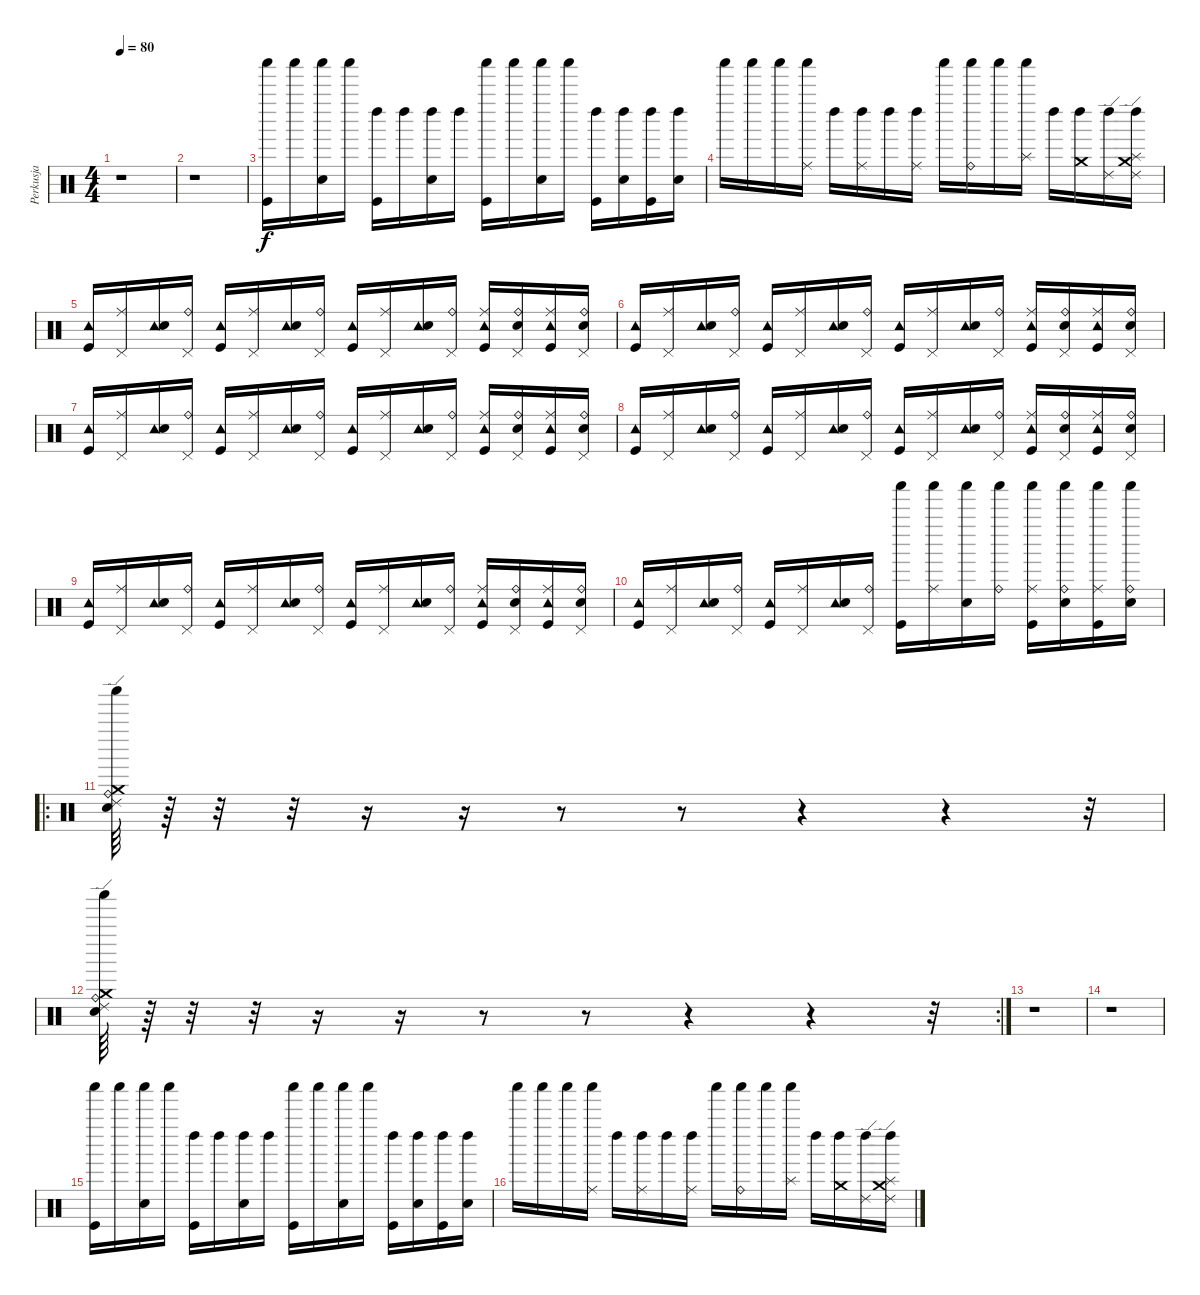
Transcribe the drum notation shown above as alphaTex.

\track ("Perkusja" "Perkusja") {instrument percussion}
\staff {score}
\articulation defaults
\ts (4 4)
\tempo 80
\clef neutral
\ks c
r.1{dy f} |
r.1 |
("Shaker (hit)" "Kick (hit)").16 "Shaker (hit)".16 ("Shaker (hit)" "Snare (hit) 2").16 "Shaker (hit)".16 ("Left Maraca (hit)" "Kick (hit)").16 "Left Maraca (hit)".16 ("Left Maraca (hit)" "Snare (hit) 2").16 "Left Maraca (hit)".16 ("Shaker (hit)" "Kick (hit)").16 "Shaker (hit)".16 ("Shaker (hit)" "Snare (hit) 2").16 "Shaker (hit)".16 ("Left Maraca (hit)" "Kick (hit)").16 ("Left Maraca (hit)" "Snare (hit) 2").16 ("Left Maraca (hit)" "Kick (hit)").16 ("Left Maraca (hit)" "Snare (hit) 2").16 |
"Shaker (hit)".16 "Shaker (hit)".16 "Shaker (hit)".16 ("Shaker (hit)" "Ride (middle)").16 "Left Maraca (hit)".16 ("Left Maraca (hit)" "Ride (middle)").16 "Left Maraca (hit)".16 ("Left Maraca (hit)" "Ride (middle)").16 "Shaker (hit)".16 ("Shaker (hit)" "Ride (bell)").16 "Shaker (hit)".16 ("Shaker (hit)" "Splash (hit)").16 "Left Maraca (hit)".16 ("Left Maraca (hit)" "Crash medium (hit)").16 ("Left Maraca (hit)" "Ride (edge) 2").16 ("Left Maraca (hit)" "Ride (edge) 2" "Crash medium (hit)" "Splash (hit)").16 |
("Tambourine (hit)" "Kick (hit)").16 ("Pedal Hi-Hat (hit)" "Ride (middle)").16 ("Tambourine (hit)" "Snare (hit) 2").16 ("Pedal Hi-Hat (hit)" "Ride (bell)").16 ("Tambourine (hit)" "Kick (hit)").16 ("Pedal Hi-Hat (hit)" "Ride (middle)").16 ("Tambourine (hit)" "Snare (hit) 2").16 ("Pedal Hi-Hat (hit)" "Ride (bell)").16 ("Tambourine (hit)" "Kick (hit)").16 ("Pedal Hi-Hat (hit)" "Ride (middle)").16 ("Tambourine (hit)" "Snare (hit) 2").16 ("Pedal Hi-Hat (hit)" "Ride (bell)").16 ("Tambourine (hit)" "Kick (hit)" "Ride (middle)").16 ("Pedal Hi-Hat (hit)" "Snare (hit) 2" "Ride (bell)").16 ("Tambourine (hit)" "Kick (hit)" "Ride (middle)").16 ("Pedal Hi-Hat (hit)" "Snare (hit) 2" "Ride (bell)").16 |
("Tambourine (hit)" "Kick (hit)").16 ("Pedal Hi-Hat (hit)" "Ride (middle)").16 ("Tambourine (hit)" "Snare (hit) 2").16 ("Pedal Hi-Hat (hit)" "Ride (bell)").16 ("Tambourine (hit)" "Kick (hit)").16 ("Pedal Hi-Hat (hit)" "Ride (middle)").16 ("Tambourine (hit)" "Snare (hit) 2").16 ("Pedal Hi-Hat (hit)" "Ride (bell)").16 ("Tambourine (hit)" "Kick (hit)").16 ("Pedal Hi-Hat (hit)" "Ride (middle)").16 ("Tambourine (hit)" "Snare (hit) 2").16 ("Pedal Hi-Hat (hit)" "Ride (bell)").16 ("Tambourine (hit)" "Kick (hit)" "Ride (middle)").16 ("Pedal Hi-Hat (hit)" "Snare (hit) 2" "Ride (bell)").16 ("Tambourine (hit)" "Kick (hit)" "Ride (middle)").16 ("Pedal Hi-Hat (hit)" "Snare (hit) 2" "Ride (bell)").16 |
("Tambourine (hit)" "Kick (hit)").16 ("Pedal Hi-Hat (hit)" "Ride (middle)").16 ("Tambourine (hit)" "Snare (hit) 2").16 ("Pedal Hi-Hat (hit)" "Ride (bell)").16 ("Tambourine (hit)" "Kick (hit)").16 ("Pedal Hi-Hat (hit)" "Ride (middle)").16 ("Tambourine (hit)" "Snare (hit) 2").16 ("Pedal Hi-Hat (hit)" "Ride (bell)").16 ("Tambourine (hit)" "Kick (hit)").16 ("Pedal Hi-Hat (hit)" "Ride (middle)").16 ("Tambourine (hit)" "Snare (hit) 2").16 ("Pedal Hi-Hat (hit)" "Ride (bell)").16 ("Tambourine (hit)" "Kick (hit)" "Ride (middle)").16 ("Pedal Hi-Hat (hit)" "Snare (hit) 2" "Ride (bell)").16 ("Tambourine (hit)" "Kick (hit)" "Ride (middle)").16 ("Pedal Hi-Hat (hit)" "Snare (hit) 2" "Ride (bell)").16 |
("Tambourine (hit)" "Kick (hit)").16 ("Pedal Hi-Hat (hit)" "Ride (middle)").16 ("Tambourine (hit)" "Snare (hit) 2").16 ("Pedal Hi-Hat (hit)" "Ride (bell)").16 ("Tambourine (hit)" "Kick (hit)").16 ("Pedal Hi-Hat (hit)" "Ride (middle)").16 ("Tambourine (hit)" "Snare (hit) 2").16 ("Pedal Hi-Hat (hit)" "Ride (bell)").16 ("Tambourine (hit)" "Kick (hit)").16 ("Pedal Hi-Hat (hit)" "Ride (middle)").16 ("Tambourine (hit)" "Snare (hit) 2").16 ("Pedal Hi-Hat (hit)" "Ride (bell)").16 ("Tambourine (hit)" "Kick (hit)" "Ride (middle)").16 ("Pedal Hi-Hat (hit)" "Snare (hit) 2" "Ride (bell)").16 ("Tambourine (hit)" "Kick (hit)" "Ride (middle)").16 ("Pedal Hi-Hat (hit)" "Snare (hit) 2" "Ride (bell)").16 |
("Tambourine (hit)" "Kick (hit)").16 ("Pedal Hi-Hat (hit)" "Ride (middle)").16 ("Tambourine (hit)" "Snare (hit) 2").16 ("Pedal Hi-Hat (hit)" "Ride (bell)").16 ("Tambourine (hit)" "Kick (hit)").16 ("Pedal Hi-Hat (hit)" "Ride (middle)").16 ("Tambourine (hit)" "Snare (hit) 2").16 ("Pedal Hi-Hat (hit)" "Ride (bell)").16 ("Tambourine (hit)" "Kick (hit)").16 ("Pedal Hi-Hat (hit)" "Ride (middle)").16 ("Tambourine (hit)" "Snare (hit) 2").16 ("Pedal Hi-Hat (hit)" "Ride (bell)").16 ("Tambourine (hit)" "Kick (hit)" "Ride (middle)").16 ("Pedal Hi-Hat (hit)" "Snare (hit) 2" "Ride (bell)").16 ("Tambourine (hit)" "Kick (hit)" "Ride (middle)").16 ("Pedal Hi-Hat (hit)" "Snare (hit) 2" "Ride (bell)").16 |
("Tambourine (hit)" "Kick (hit)").16 ("Pedal Hi-Hat (hit)" "Ride (middle)").16 ("Tambourine (hit)" "Snare (hit) 2").16 ("Pedal Hi-Hat (hit)" "Ride (bell)").16 ("Tambourine (hit)" "Kick (hit)").16 ("Pedal Hi-Hat (hit)" "Ride (middle)").16 ("Tambourine (hit)" "Snare (hit) 2").16 ("Pedal Hi-Hat (hit)" "Ride (bell)").16 ("Shaker (hit)" "Kick (hit)").16 ("Shaker (hit)" "Ride (middle)").16 ("Shaker (hit)" "Snare (hit) 2").16 ("Shaker (hit)" "Ride (bell)").16 ("Shaker (hit)" "Kick (hit)" "Ride (middle)").16 ("Shaker (hit)" "Snare (hit) 2" "Ride (bell)").16 ("Shaker (hit)" "Kick (hit)" "Ride (middle)").16 ("Shaker (hit)" "Snare (hit) 2" "Ride (bell)").16 |
\ro
("Shaker (hit)" "Snare (hit) 2" "Ride (bell)" "Crash medium (hit)" "Ride (edge) 2").64 r.64 r.32 r.32 r.16 r.16 r.8 r.8 r.4 r.4 r.32 |
\rc 2
("Shaker (hit)" "Snare (hit) 2" "Ride (bell)" "Crash medium (hit)" "Ride (edge) 2").64 r.64 r.32 r.32 r.16 r.16 r.8 r.8 r.4 r.4 r.32 |
r.1 |
r.1 |
("Shaker (hit)" "Kick (hit)").16 "Shaker (hit)".16 ("Shaker (hit)" "Snare (hit) 2").16 "Shaker (hit)".16 ("Left Maraca (hit)" "Kick (hit)").16 "Left Maraca (hit)".16 ("Left Maraca (hit)" "Snare (hit) 2").16 "Left Maraca (hit)".16 ("Shaker (hit)" "Kick (hit)").16 "Shaker (hit)".16 ("Shaker (hit)" "Snare (hit) 2").16 "Shaker (hit)".16 ("Left Maraca (hit)" "Kick (hit)").16 ("Left Maraca (hit)" "Snare (hit) 2").16 ("Left Maraca (hit)" "Kick (hit)").16 ("Left Maraca (hit)" "Snare (hit) 2").16 |
"Shaker (hit)".16 "Shaker (hit)".16 "Shaker (hit)".16 ("Shaker (hit)" "Ride (middle)").16 "Left Maraca (hit)".16 ("Left Maraca (hit)" "Ride (middle)").16 "Left Maraca (hit)".16 ("Left Maraca (hit)" "Ride (middle)").16 "Shaker (hit)".16 ("Shaker (hit)" "Ride (bell)").16 "Shaker (hit)".16 ("Shaker (hit)" "Splash (hit)").16 "Left Maraca (hit)".16 ("Left Maraca (hit)" "Crash medium (hit)").16 ("Left Maraca (hit)" "Ride (edge) 2").16 ("Left Maraca (hit)" "Ride (edge) 2" "Crash medium (hit)" "Splash (hit)").16
